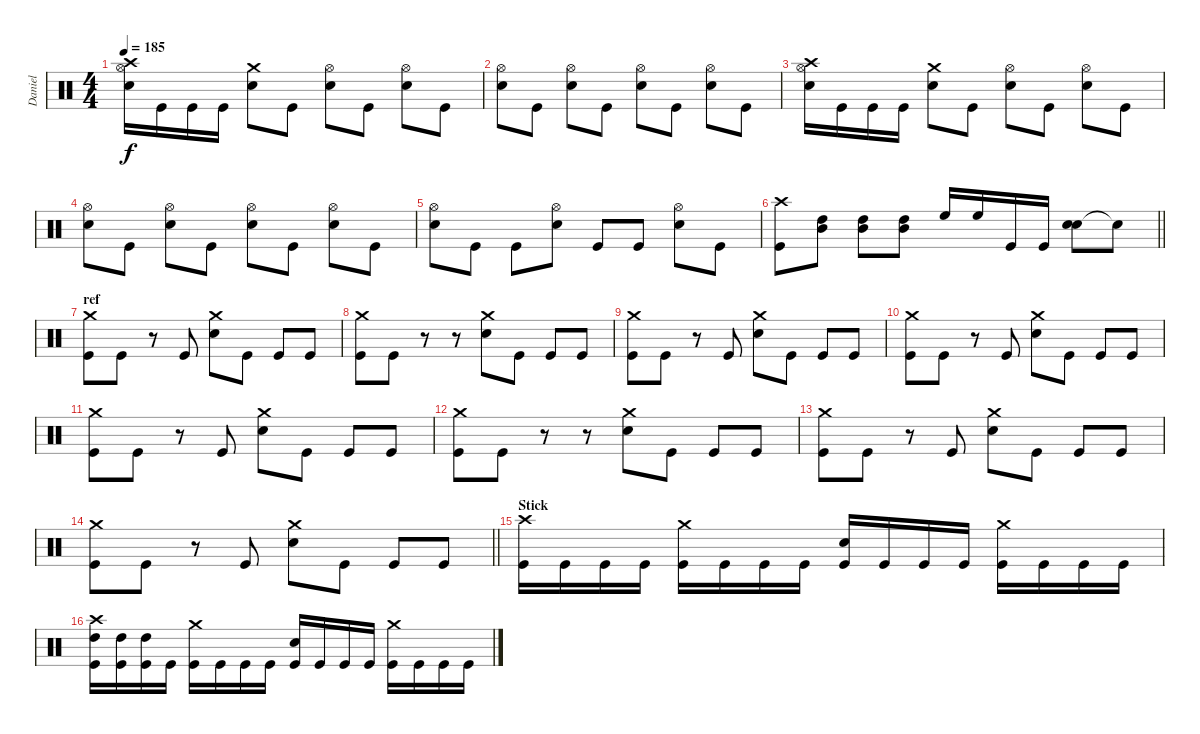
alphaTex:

\track ("Daniel" "Daniel") {instrument percussion}
\staff {score}
\articulation defaults
\ts (4 4)
\tempo 185
\clef neutral
\ks c
("Crash high (hit)" "Hi-Hat (open)" "Electric Snare (hit)").16{dy f} "Kick (hit)".16 "Kick (hit)".16 "Kick (hit)".16 ("Crash medium (hit)" "Electric Snare (hit)").8 "Kick (hit)".8 ("Hi-Hat (open)" "Electric Snare (hit)").8 "Kick (hit)".8 ("Hi-Hat (open)" "Electric Snare (hit)").8 "Kick (hit)".8 |
("Hi-Hat (open)" "Electric Snare (hit)").8 "Kick (hit)".8 ("Hi-Hat (open)" "Electric Snare (hit)").8 "Kick (hit)".8 ("Hi-Hat (open)" "Electric Snare (hit)").8 "Kick (hit)".8 ("Hi-Hat (open)" "Electric Snare (hit)").8 "Kick (hit)".8 |
("Crash high (hit)" "Hi-Hat (open)" "Electric Snare (hit)").16 "Kick (hit)".16 "Kick (hit)".16 "Kick (hit)".16 ("Crash medium (hit)" "Electric Snare (hit)").8 "Kick (hit)".8 ("Hi-Hat (open)" "Electric Snare (hit)").8 "Kick (hit)".8 ("Hi-Hat (open)" "Electric Snare (hit)").8 "Kick (hit)".8 |
("Hi-Hat (open)" "Electric Snare (hit)").8 "Kick (hit)".8 ("Hi-Hat (open)" "Electric Snare (hit)").8 "Kick (hit)".8 ("Hi-Hat (open)" "Electric Snare (hit)").8 "Kick (hit)".8 ("Hi-Hat (open)" "Electric Snare (hit)").8 "Kick (hit)".8 |
("Hi-Hat (open)" "Electric Snare (hit)").8 "Kick (hit)".8 "Kick (hit)".8 ("Hi-Hat (open)" "Electric Snare (hit)").8 "Kick (hit)".8 "Kick (hit)".8 ("Hi-Hat (open)" "Electric Snare (hit)").8 "Kick (hit)".8 |
\barLineRight lightlight
("Crash high (hit)" "Kick (hit)").8 ("High Tom (hit)" "Mid Tom (hit)").8 ("High Tom (hit)" "Mid Tom (hit)").8 ("High Tom (hit)" "Mid Tom (hit)").8 "High Floor Tom (hit)".16 "High Floor Tom (hit)".16 "Kick (hit)".16 "Kick (hit)".16 ("Electric Snare (hit)" "Electric Snare (hit)").8 "Snare (hit)"{t}.8 |
\section ("" "ref")
("Crash medium (hit)" "Kick (hit)").8 "Kick (hit)".8 r.8 "Kick (hit)".8 ("Crash medium (hit)" "Electric Snare (hit)").8 "Kick (hit)".8 "Kick (hit)".8 "Kick (hit)".8 |
("Crash medium (hit)" "Kick (hit)").8 "Kick (hit)".8 r.8 r.8 ("Crash medium (hit)" "Electric Snare (hit)").8 "Kick (hit)".8 "Kick (hit)".8 "Kick (hit)".8 |
("Crash medium (hit)" "Kick (hit)").8 "Kick (hit)".8 r.8 "Kick (hit)".8 ("Crash medium (hit)" "Electric Snare (hit)").8 "Kick (hit)".8 "Kick (hit)".8 "Kick (hit)".8 |
("Crash medium (hit)" "Kick (hit)").8 "Kick (hit)".8 r.8 "Kick (hit)".8 ("Crash medium (hit)" "Electric Snare (hit)").8 "Kick (hit)".8 "Kick (hit)".8 "Kick (hit)".8 |
("Crash medium (hit)" "Kick (hit)").8 "Kick (hit)".8 r.8 "Kick (hit)".8 ("Crash medium (hit)" "Electric Snare (hit)").8 "Kick (hit)".8 "Kick (hit)".8 "Kick (hit)".8 |
("Crash medium (hit)" "Kick (hit)").8 "Kick (hit)".8 r.8 r.8 ("Crash medium (hit)" "Electric Snare (hit)").8 "Kick (hit)".8 "Kick (hit)".8 "Kick (hit)".8 |
("Crash medium (hit)" "Kick (hit)").8 "Kick (hit)".8 r.8 "Kick (hit)".8 ("Crash medium (hit)" "Electric Snare (hit)").8 "Kick (hit)".8 "Kick (hit)".8 "Kick (hit)".8 |
\barLineRight lightlight
("Crash medium (hit)" "Kick (hit)").8 "Kick (hit)".8 r.8 "Kick (hit)".8 ("Crash medium (hit)" "Electric Snare (hit)").8 "Kick (hit)".8 "Kick (hit)".8 "Kick (hit)".8 |
\section ("" "Stick")
("Crash high (hit)" "Kick (hit)").16 "Kick (hit)".16 "Kick (hit)".16 "Kick (hit)".16 ("Crash medium (hit)" "Kick (hit)").16 "Kick (hit)".16 "Kick (hit)".16 "Kick (hit)".16 ("Electric Snare (hit)" "Kick (hit)").16 "Kick (hit)".16 "Kick (hit)".16 "Kick (hit)".16 ("Crash medium (hit)" "Kick (hit)").16 "Kick (hit)".16 "Kick (hit)".16 "Kick (hit)".16 |
("Crash high (hit)" "High Tom (hit)" "Kick (hit)").16 ("High Tom (hit)" "Kick (hit)").16 ("High Tom (hit)" "Kick (hit)").16 "Kick (hit)".16 ("Crash medium (hit)" "Kick (hit)").16 "Kick (hit)".16 "Kick (hit)".16 "Kick (hit)".16 ("Electric Snare (hit)" "Kick (hit)").16 "Kick (hit)".16 "Kick (hit)".16 "Kick (hit)".16 ("Crash medium (hit)" "Kick (hit)").16 "Kick (hit)".16 "Kick (hit)".16 "Kick (hit)".16
